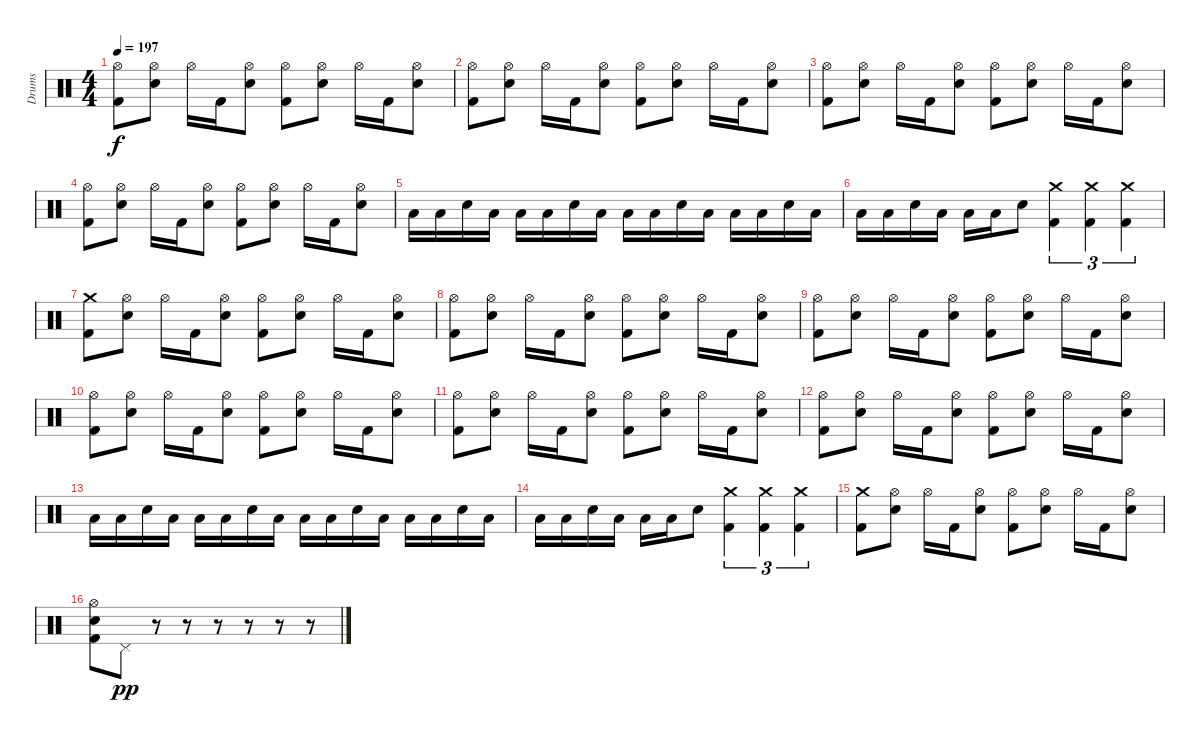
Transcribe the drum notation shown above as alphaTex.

\track ("Drums" "Drums") {instrument percussion}
\staff {score}
\articulation defaults
\ts (4 4)
\tempo 197
\clef neutral
\ks c
("Hi-Hat (open)" "Kick (hit) 2").8{dy f} ("Hi-Hat (open)" "Electric Snare (hit)").8 "Hi-Hat (open)".16 "Kick (hit) 2".16 ("Hi-Hat (open)" "Electric Snare (hit)").8 ("Hi-Hat (open)" "Kick (hit) 2").8 ("Hi-Hat (open)" "Electric Snare (hit)").8 "Hi-Hat (open)".16 "Kick (hit) 2".16 ("Hi-Hat (open)" "Electric Snare (hit)").8 |
("Hi-Hat (open)" "Kick (hit) 2").8 ("Hi-Hat (open)" "Electric Snare (hit)").8 "Hi-Hat (open)".16 "Kick (hit) 2".16 ("Hi-Hat (open)" "Electric Snare (hit)").8 ("Hi-Hat (open)" "Kick (hit) 2").8 ("Hi-Hat (open)" "Electric Snare (hit)").8 "Hi-Hat (open)".16 "Kick (hit) 2".16 ("Hi-Hat (open)" "Electric Snare (hit)").8 |
("Hi-Hat (open)" "Kick (hit) 2").8 ("Hi-Hat (open)" "Electric Snare (hit)").8 "Hi-Hat (open)".16 "Kick (hit) 2".16 ("Hi-Hat (open)" "Electric Snare (hit)").8 ("Hi-Hat (open)" "Kick (hit) 2").8 ("Hi-Hat (open)" "Electric Snare (hit)").8 "Hi-Hat (open)".16 "Kick (hit) 2".16 ("Hi-Hat (open)" "Electric Snare (hit)").8 |
("Hi-Hat (open)" "Kick (hit) 2").8 ("Hi-Hat (open)" "Electric Snare (hit)").8 "Hi-Hat (open)".16 "Kick (hit) 2".16 ("Hi-Hat (open)" "Electric Snare (hit)").8 ("Hi-Hat (open)" "Kick (hit) 2").8 ("Hi-Hat (open)" "Electric Snare (hit)").8 "Hi-Hat (open)".16 "Kick (hit) 2".16 ("Hi-Hat (open)" "Electric Snare (hit)").8 |
"Low Tom (hit)".16 "Low Tom (hit)".16 "Electric Snare (hit)".16 "Low Tom (hit)".16 "Low Tom (hit)".16 "Low Tom (hit)".16 "Electric Snare (hit)".16 "Low Tom (hit)".16 "Low Tom (hit)".16 "Low Tom (hit)".16 "Electric Snare (hit)".16 "Low Tom (hit)".16 "Low Tom (hit)".16 "Low Tom (hit)".16 "Electric Snare (hit)".16 "Low Tom (hit)".16 |
"Low Tom (hit)".16 "Low Tom (hit)".16 "Electric Snare (hit)".16 "Low Tom (hit)".16 "Low Tom (hit)".16 "Low Tom (hit)".16 "Electric Snare (hit)".8 ("Crash medium (hit)" "Kick (hit) 2").4{tu (3 2)} ("Crash medium (hit)" "Kick (hit) 2").4{tu (3 2)} ("Crash medium (hit)" "Kick (hit) 2").4{tu (3 2)} |
("Crash medium (hit)" "Kick (hit) 2").8 ("Hi-Hat (open)" "Electric Snare (hit)").8 "Hi-Hat (open)".16 "Kick (hit) 2".16 ("Hi-Hat (open)" "Electric Snare (hit)").8 ("Hi-Hat (open)" "Kick (hit) 2").8 ("Hi-Hat (open)" "Electric Snare (hit)").8 "Hi-Hat (open)".16 "Kick (hit) 2".16 ("Hi-Hat (open)" "Electric Snare (hit)").8 |
("Hi-Hat (open)" "Kick (hit) 2").8 ("Hi-Hat (open)" "Electric Snare (hit)").8 "Hi-Hat (open)".16 "Kick (hit) 2".16 ("Hi-Hat (open)" "Electric Snare (hit)").8 ("Hi-Hat (open)" "Kick (hit) 2").8 ("Hi-Hat (open)" "Electric Snare (hit)").8 "Hi-Hat (open)".16 "Kick (hit) 2".16 ("Hi-Hat (open)" "Electric Snare (hit)").8 |
("Hi-Hat (open)" "Kick (hit) 2").8 ("Hi-Hat (open)" "Electric Snare (hit)").8 "Hi-Hat (open)".16 "Kick (hit) 2".16 ("Hi-Hat (open)" "Electric Snare (hit)").8 ("Hi-Hat (open)" "Kick (hit) 2").8 ("Hi-Hat (open)" "Electric Snare (hit)").8 "Hi-Hat (open)".16 "Kick (hit) 2".16 ("Hi-Hat (open)" "Electric Snare (hit)").8 |
("Hi-Hat (open)" "Kick (hit) 2").8 ("Hi-Hat (open)" "Electric Snare (hit)").8 "Hi-Hat (open)".16 "Kick (hit) 2".16 ("Hi-Hat (open)" "Electric Snare (hit)").8 ("Hi-Hat (open)" "Kick (hit) 2").8 ("Hi-Hat (open)" "Electric Snare (hit)").8 "Hi-Hat (open)".16 "Kick (hit) 2".16 ("Hi-Hat (open)" "Electric Snare (hit)").8 |
("Hi-Hat (open)" "Kick (hit) 2").8 ("Hi-Hat (open)" "Electric Snare (hit)").8 "Hi-Hat (open)".16 "Kick (hit) 2".16 ("Hi-Hat (open)" "Electric Snare (hit)").8 ("Hi-Hat (open)" "Kick (hit) 2").8 ("Hi-Hat (open)" "Electric Snare (hit)").8 "Hi-Hat (open)".16 "Kick (hit) 2".16 ("Hi-Hat (open)" "Electric Snare (hit)").8 |
("Hi-Hat (open)" "Kick (hit) 2").8 ("Hi-Hat (open)" "Electric Snare (hit)").8 "Hi-Hat (open)".16 "Kick (hit) 2".16 ("Hi-Hat (open)" "Electric Snare (hit)").8 ("Hi-Hat (open)" "Kick (hit) 2").8 ("Hi-Hat (open)" "Electric Snare (hit)").8 "Hi-Hat (open)".16 "Kick (hit) 2".16 ("Hi-Hat (open)" "Electric Snare (hit)").8 |
"Low Tom (hit)".16 "Low Tom (hit)".16 "Electric Snare (hit)".16 "Low Tom (hit)".16 "Low Tom (hit)".16 "Low Tom (hit)".16 "Electric Snare (hit)".16 "Low Tom (hit)".16 "Low Tom (hit)".16 "Low Tom (hit)".16 "Electric Snare (hit)".16 "Low Tom (hit)".16 "Low Tom (hit)".16 "Low Tom (hit)".16 "Electric Snare (hit)".16 "Low Tom (hit)".16 |
"Low Tom (hit)".16 "Low Tom (hit)".16 "Electric Snare (hit)".16 "Low Tom (hit)".16 "Low Tom (hit)".16 "Low Tom (hit)".16 "Electric Snare (hit)".8 ("Crash medium (hit)" "Kick (hit) 2").4{tu (3 2)} ("Crash medium (hit)" "Kick (hit) 2").4{tu (3 2)} ("Crash medium (hit)" "Kick (hit) 2").4{tu (3 2)} |
("Crash medium (hit)" "Kick (hit) 2").8 ("Hi-Hat (open)" "Electric Snare (hit)").8 "Hi-Hat (open)".16 "Kick (hit) 2".16 ("Hi-Hat (open)" "Electric Snare (hit)").8 ("Hi-Hat (open)" "Kick (hit) 2").8 ("Hi-Hat (open)" "Electric Snare (hit)").8 "Hi-Hat (open)".16 "Kick (hit) 2".16 ("Hi-Hat (open)" "Electric Snare (hit)").8 |
("Hi-Hat (open)" "Electric Snare (hit)" "Kick (hit) 2").8 "Pedal Hi-Hat (hit)".8{dy pp} r.8 r.8 r.8 r.8 r.8 r.8
